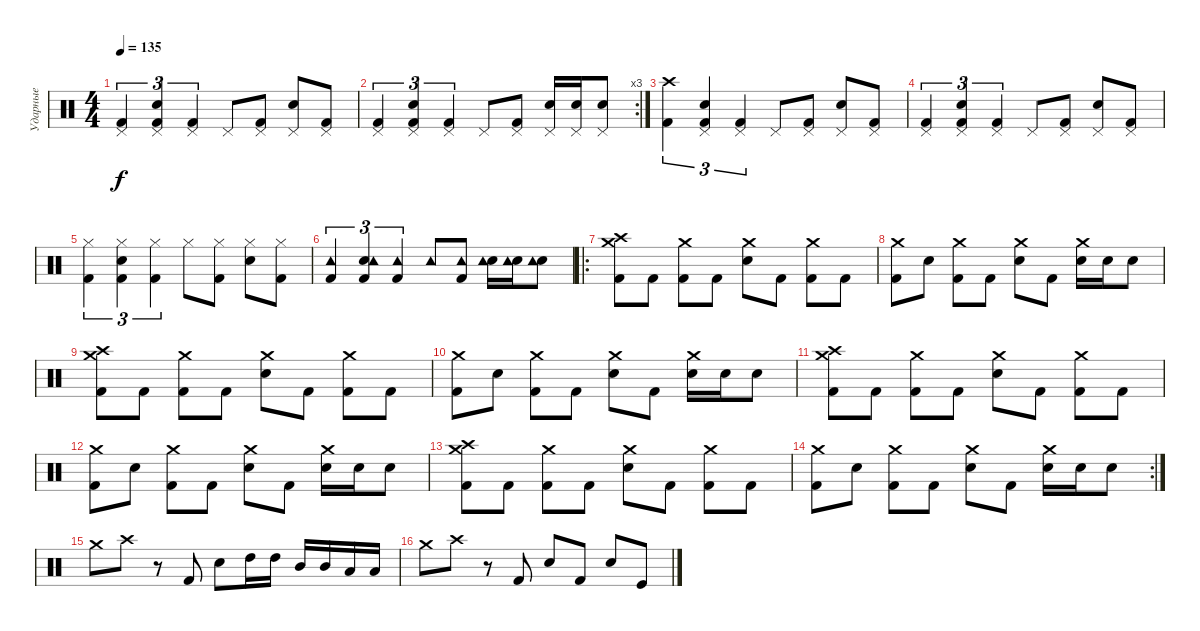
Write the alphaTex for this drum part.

\track ("Ударные" "Ударные") {instrument percussion}
\staff {score}
\articulation defaults
\ts (4 4)
\tempo 135
\clef neutral
\ks c
("Kick (hit) 2" "Pedal Hi-Hat (hit)").4{tu (3 2) dy f} ("Kick (hit) 2" "Electric Snare (hit)" "Pedal Hi-Hat (hit)").4{tu (3 2)} ("Kick (hit) 2" "Pedal Hi-Hat (hit)").4{tu (3 2)} "Pedal Hi-Hat (hit)".8 ("Kick (hit) 2" "Pedal Hi-Hat (hit)").8 ("Electric Snare (hit)" "Pedal Hi-Hat (hit)").8 ("Kick (hit) 2" "Pedal Hi-Hat (hit)").8 |
\rc 3
("Kick (hit) 2" "Pedal Hi-Hat (hit)").4{tu (3 2)} ("Kick (hit) 2" "Electric Snare (hit)" "Pedal Hi-Hat (hit)").4{tu (3 2)} ("Kick (hit) 2" "Pedal Hi-Hat (hit)").4{tu (3 2)} "Pedal Hi-Hat (hit)".8 ("Kick (hit) 2" "Pedal Hi-Hat (hit)").8 ("Electric Snare (hit)" "Pedal Hi-Hat (hit)").16 ("Electric Snare (hit)" "Pedal Hi-Hat (hit)").16 ("Electric Snare (hit)" "Pedal Hi-Hat (hit)").8 |
("Kick (hit) 2" "Crash high (hit)").4{tu (3 2)} ("Kick (hit) 2" "Electric Snare (hit)" "Pedal Hi-Hat (hit)").4{tu (3 2)} ("Kick (hit) 2" "Pedal Hi-Hat (hit)").4{tu (3 2)} "Pedal Hi-Hat (hit)".8 ("Kick (hit) 2" "Pedal Hi-Hat (hit)").8 ("Electric Snare (hit)" "Pedal Hi-Hat (hit)").8 ("Kick (hit) 2" "Pedal Hi-Hat (hit)").8 |
("Kick (hit) 2" "Pedal Hi-Hat (hit)").4{tu (3 2)} ("Kick (hit) 2" "Electric Snare (hit)" "Pedal Hi-Hat (hit)").4{tu (3 2)} ("Kick (hit) 2" "Pedal Hi-Hat (hit)").4{tu (3 2)} "Pedal Hi-Hat (hit)".8 ("Kick (hit) 2" "Pedal Hi-Hat (hit)").8 ("Electric Snare (hit)" "Pedal Hi-Hat (hit)").8 ("Kick (hit) 2" "Pedal Hi-Hat (hit)").8 |
("Kick (hit) 2" "Hi-Hat (closed)").4{tu (3 2)} ("Kick (hit) 2" "Electric Snare (hit)" "Hi-Hat (closed)").4{tu (3 2)} ("Kick (hit) 2" "Hi-Hat (closed)").4{tu (3 2)} "Hi-Hat (closed)".8 ("Kick (hit) 2" "Hi-Hat (closed)").8 ("Electric Snare (hit)" "Hi-Hat (closed)").8 ("Kick (hit) 2" "Hi-Hat (closed)").8 |
("Kick (hit) 2" "Tambourine (hit)").4{tu (3 2)} ("Kick (hit) 2" "Electric Snare (hit)" "Tambourine (hit)").4{tu (3 2)} ("Kick (hit) 2" "Tambourine (hit)").4{tu (3 2)} "Tambourine (hit)".8 ("Kick (hit) 2" "Tambourine (hit)").8 ("Electric Snare (hit)" "Tambourine (hit)").16 ("Electric Snare (hit)" "Tambourine (hit)").16 ("Electric Snare (hit)" "Tambourine (hit)").8 |
\ro
("Kick (hit) 2" "Crash medium (hit)" "Crash high (hit)").8 "Kick (hit) 2".8 ("Kick (hit) 2" "Crash medium (hit)").8 "Kick (hit) 2".8 ("Electric Snare (hit)" "Crash medium (hit)").8 "Kick (hit) 2".8 ("Kick (hit) 2" "Crash medium (hit)").8 "Kick (hit) 2".8 |
("Kick (hit) 2" "Crash medium (hit)").8 "Electric Snare (hit)".8 ("Kick (hit) 2" "Crash medium (hit)").8 "Kick (hit) 2".8 ("Electric Snare (hit)" "Crash medium (hit)").8 "Kick (hit) 2".8 ("Electric Snare (hit)" "Crash medium (hit)").16 "Electric Snare (hit)".16 "Electric Snare (hit)".8 |
("Kick (hit) 2" "Crash medium (hit)" "Crash high (hit)").8 "Kick (hit) 2".8 ("Kick (hit) 2" "Crash medium (hit)").8 "Kick (hit) 2".8 ("Electric Snare (hit)" "Crash medium (hit)").8 "Kick (hit) 2".8 ("Kick (hit) 2" "Crash medium (hit)").8 "Kick (hit) 2".8 |
("Kick (hit) 2" "Crash medium (hit)").8 "Electric Snare (hit)".8 ("Kick (hit) 2" "Crash medium (hit)").8 "Kick (hit) 2".8 ("Electric Snare (hit)" "Crash medium (hit)").8 "Kick (hit) 2".8 ("Electric Snare (hit)" "Crash medium (hit)").16 "Electric Snare (hit)".16 "Electric Snare (hit)".8 |
("Kick (hit) 2" "Crash medium (hit)" "Crash high (hit)").8 "Kick (hit) 2".8 ("Kick (hit) 2" "Crash medium (hit)").8 "Kick (hit) 2".8 ("Electric Snare (hit)" "Crash medium (hit)").8 "Kick (hit) 2".8 ("Kick (hit) 2" "Crash medium (hit)").8 "Kick (hit) 2".8 |
("Kick (hit) 2" "Crash medium (hit)").8 "Electric Snare (hit)".8 ("Kick (hit) 2" "Crash medium (hit)").8 "Kick (hit) 2".8 ("Electric Snare (hit)" "Crash medium (hit)").8 "Kick (hit) 2".8 ("Electric Snare (hit)" "Crash medium (hit)").16 "Electric Snare (hit)".16 "Electric Snare (hit)".8 |
("Kick (hit) 2" "Crash medium (hit)" "Crash high (hit)").8 "Kick (hit) 2".8 ("Kick (hit) 2" "Crash medium (hit)").8 "Kick (hit) 2".8 ("Electric Snare (hit)" "Crash medium (hit)").8 "Kick (hit) 2".8 ("Kick (hit) 2" "Crash medium (hit)").8 "Kick (hit) 2".8 |
\rc 2
("Kick (hit) 2" "Crash medium (hit)").8 "Electric Snare (hit)".8 ("Kick (hit) 2" "Crash medium (hit)").8 "Kick (hit) 2".8 ("Electric Snare (hit)" "Crash medium (hit)").8 "Kick (hit) 2".8 ("Electric Snare (hit)" "Crash medium (hit)").16 "Electric Snare (hit)".16 "Electric Snare (hit)".8 |
"Crash medium (hit)".8 "Crash high (hit)".8 r.8 "Kick (hit) 2".8 "Electric Snare (hit)".8 "High Tom (hit)".16 "High Tom (hit)".16 "Mid Tom (hit)".16 "Mid Tom (hit)".16 "Low Tom (hit)".16 "Low Tom (hit)".16 |
"Crash medium (hit)".8 "Crash high (hit)".8 r.8 "Kick (hit) 2".8 "Electric Snare (hit)".8 "Kick (hit) 2".8 "Electric Snare (hit)".8 "Kick (hit)".8
